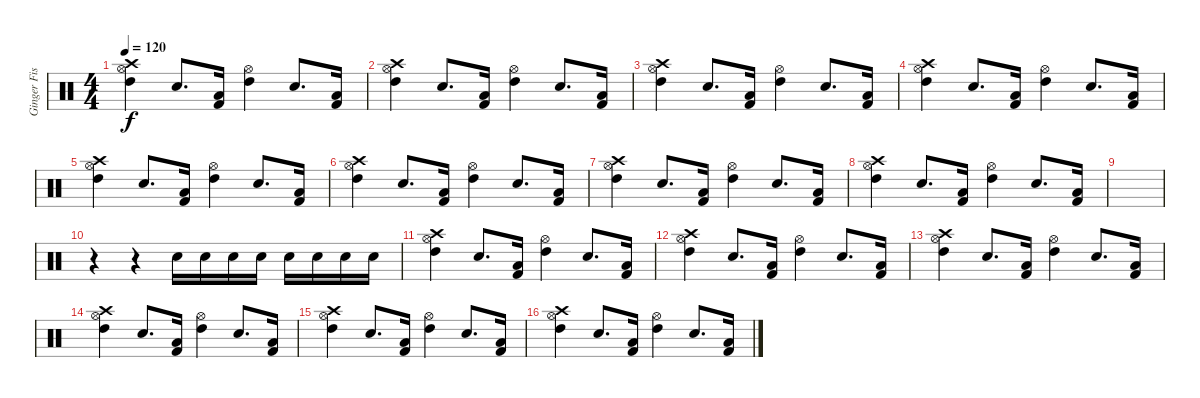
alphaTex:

\track ("Ginger Fish" "Ginger Fis") {instrument percussion}
\staff {score}
\articulation defaults
\ts (4 4)
\tempo 120
\clef neutral
\ks c
("Crash high (hit)" "Hi-Hat (open)" "High Tom (hit)").4{dy f} "Electric Snare (hit)".8{d} ("Low Tom (hit)" "Kick (hit) 2").16 ("Hi-Hat (open)" "High Tom (hit)").4 "Electric Snare (hit)".8{d} ("Low Tom (hit)" "Kick (hit) 2").16 |
("Crash high (hit)" "Hi-Hat (open)" "High Tom (hit)").4 "Electric Snare (hit)".8{d} ("Low Tom (hit)" "Kick (hit) 2").16 ("Hi-Hat (open)" "High Tom (hit)").4 "Electric Snare (hit)".8{d} ("Low Tom (hit)" "Kick (hit) 2").16 |
("Crash high (hit)" "Hi-Hat (open)" "High Tom (hit)").4 "Electric Snare (hit)".8{d} ("Low Tom (hit)" "Kick (hit) 2").16 ("Hi-Hat (open)" "High Tom (hit)").4 "Electric Snare (hit)".8{d} ("Low Tom (hit)" "Kick (hit) 2").16 |
("Crash high (hit)" "Hi-Hat (open)" "High Tom (hit)").4 "Electric Snare (hit)".8{d} ("Low Tom (hit)" "Kick (hit) 2").16 ("Hi-Hat (open)" "High Tom (hit)").4 "Electric Snare (hit)".8{d} ("Low Tom (hit)" "Kick (hit) 2").16 |
("Crash high (hit)" "Hi-Hat (open)" "High Tom (hit)").4 "Electric Snare (hit)".8{d} ("Low Tom (hit)" "Kick (hit) 2").16 ("Hi-Hat (open)" "High Tom (hit)").4 "Electric Snare (hit)".8{d} ("Low Tom (hit)" "Kick (hit) 2").16 |
("Crash high (hit)" "Hi-Hat (open)" "High Tom (hit)").4 "Electric Snare (hit)".8{d} ("Low Tom (hit)" "Kick (hit) 2").16 ("Hi-Hat (open)" "High Tom (hit)").4 "Electric Snare (hit)".8{d} ("Low Tom (hit)" "Kick (hit) 2").16 |
("Crash high (hit)" "Hi-Hat (open)" "High Tom (hit)").4 "Electric Snare (hit)".8{d} ("Low Tom (hit)" "Kick (hit) 2").16 ("Hi-Hat (open)" "High Tom (hit)").4 "Electric Snare (hit)".8{d} ("Low Tom (hit)" "Kick (hit) 2").16 |
("Crash high (hit)" "Hi-Hat (open)" "High Tom (hit)").4 "Electric Snare (hit)".8{d} ("Low Tom (hit)" "Kick (hit) 2").16 ("Hi-Hat (open)" "High Tom (hit)").4 "Electric Snare (hit)".8{d} ("Low Tom (hit)" "Kick (hit) 2").16 |
|
r.4 r.4 "Electric Snare (hit)".16 "Electric Snare (hit)".16 "Electric Snare (hit)".16 "Electric Snare (hit)".16 "Electric Snare (hit)".16 "Electric Snare (hit)".16 "Electric Snare (hit)".16 "Electric Snare (hit)".16 |
("Crash high (hit)" "Hi-Hat (open)" "High Tom (hit)").4 "Electric Snare (hit)".8{d} ("Low Tom (hit)" "Kick (hit) 2").16 ("Hi-Hat (open)" "High Tom (hit)").4 "Electric Snare (hit)".8{d} ("Low Tom (hit)" "Kick (hit) 2").16 |
("Crash high (hit)" "Hi-Hat (open)" "High Tom (hit)").4 "Electric Snare (hit)".8{d} ("Low Tom (hit)" "Kick (hit) 2").16 ("Hi-Hat (open)" "High Tom (hit)").4 "Electric Snare (hit)".8{d} ("Low Tom (hit)" "Kick (hit) 2").16 |
("Crash high (hit)" "Hi-Hat (open)" "High Tom (hit)").4 "Electric Snare (hit)".8{d} ("Low Tom (hit)" "Kick (hit) 2").16 ("Hi-Hat (open)" "High Tom (hit)").4 "Electric Snare (hit)".8{d} ("Low Tom (hit)" "Kick (hit) 2").16 |
("Crash high (hit)" "Hi-Hat (open)" "High Tom (hit)").4 "Electric Snare (hit)".8{d} ("Low Tom (hit)" "Kick (hit) 2").16 ("Hi-Hat (open)" "High Tom (hit)").4 "Electric Snare (hit)".8{d} ("Low Tom (hit)" "Kick (hit) 2").16 |
("Crash high (hit)" "Hi-Hat (open)" "High Tom (hit)").4 "Electric Snare (hit)".8{d} ("Low Tom (hit)" "Kick (hit) 2").16 ("Hi-Hat (open)" "High Tom (hit)").4 "Electric Snare (hit)".8{d} ("Low Tom (hit)" "Kick (hit) 2").16 |
("Crash high (hit)" "Hi-Hat (open)" "High Tom (hit)").4 "Electric Snare (hit)".8{d} ("Low Tom (hit)" "Kick (hit) 2").16 ("Hi-Hat (open)" "High Tom (hit)").4 "Electric Snare (hit)".8{d} ("Low Tom (hit)" "Kick (hit) 2").16
